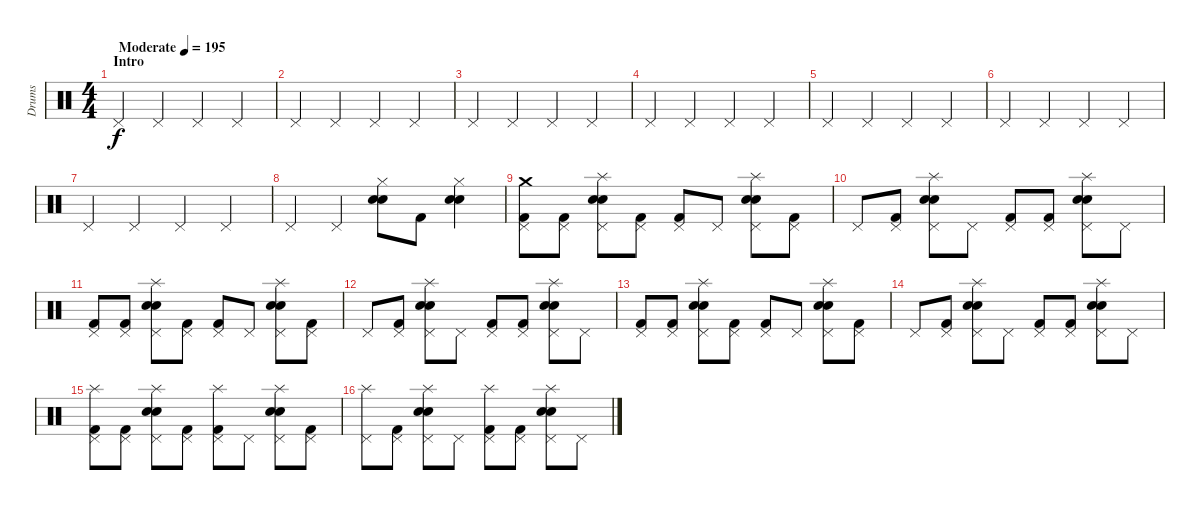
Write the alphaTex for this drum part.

\track ("Drums" "Drums") {instrument percussion}
\staff {score}
\articulation defaults
\ts (4 4)
\section ("" "Intro")
\tempo (195 "Moderate")
\clef neutral
\ks c "Pedal Hi-Hat (hit)".4{dy f} "Pedal Hi-Hat (hit)".4 "Pedal Hi-Hat (hit)".4 "Pedal Hi-Hat (hit)".4
|
"Pedal Hi-Hat (hit)".4 "Pedal Hi-Hat (hit)".4 "Pedal Hi-Hat (hit)".4 "Pedal Hi-Hat (hit)".4 |
"Pedal Hi-Hat (hit)".4 "Pedal Hi-Hat (hit)".4 "Pedal Hi-Hat (hit)".4 "Pedal Hi-Hat (hit)".4 |
"Pedal Hi-Hat (hit)".4 "Pedal Hi-Hat (hit)".4 "Pedal Hi-Hat (hit)".4 "Pedal Hi-Hat (hit)".4 |
"Pedal Hi-Hat (hit)".4 "Pedal Hi-Hat (hit)".4 "Pedal Hi-Hat (hit)".4 "Pedal Hi-Hat (hit)".4 |
"Pedal Hi-Hat (hit)".4 "Pedal Hi-Hat (hit)".4 "Pedal Hi-Hat (hit)".4 "Pedal Hi-Hat (hit)".4 |
"Pedal Hi-Hat (hit)".4 "Pedal Hi-Hat (hit)".4 "Pedal Hi-Hat (hit)".4 "Pedal Hi-Hat (hit)".4 |
"Pedal Hi-Hat (hit)".4 "Pedal Hi-Hat (hit)".4 ("Hi-Hat (closed)" "Electric Snare (hit)" "Snare (hit) 2").8 "Kick (hit) 2".8 ("Hi-Hat (closed)" "Electric Snare (hit)" "Snare (hit) 2").4 |
("Crash medium (hit)" "Pedal Hi-Hat (hit)" "Kick (hit) 2").8 ("Pedal Hi-Hat (hit)" "Kick (hit) 2").8 ("Splash (hit)" "Pedal Hi-Hat (hit)" "Electric Snare (hit)" "Snare (hit) 2").8 ("Pedal Hi-Hat (hit)" "Kick (hit) 2").8 ("Pedal Hi-Hat (hit)" "Kick (hit) 2").8 "Pedal Hi-Hat (hit)".8 ("Splash (hit)" "Pedal Hi-Hat (hit)" "Electric Snare (hit)" "Snare (hit) 2").8 ("Pedal Hi-Hat (hit)" "Kick (hit) 2").8 |
"Pedal Hi-Hat (hit)".8 ("Pedal Hi-Hat (hit)" "Kick (hit) 2").8 ("Splash (hit)" "Pedal Hi-Hat (hit)" "Electric Snare (hit)" "Snare (hit) 2").8 "Pedal Hi-Hat (hit)".8 ("Pedal Hi-Hat (hit)" "Kick (hit) 2").8 ("Pedal Hi-Hat (hit)" "Kick (hit) 2").8 ("Splash (hit)" "Pedal Hi-Hat (hit)" "Electric Snare (hit)" "Snare (hit) 2").8 "Pedal Hi-Hat (hit)".8 |
("Pedal Hi-Hat (hit)" "Kick (hit) 2").8 ("Pedal Hi-Hat (hit)" "Kick (hit) 2").8 ("Splash (hit)" "Pedal Hi-Hat (hit)" "Electric Snare (hit)" "Snare (hit) 2").8 ("Pedal Hi-Hat (hit)" "Kick (hit) 2").8 ("Pedal Hi-Hat (hit)" "Kick (hit) 2").8 "Pedal Hi-Hat (hit)".8 ("Splash (hit)" "Pedal Hi-Hat (hit)" "Electric Snare (hit)" "Snare (hit) 2").8 ("Pedal Hi-Hat (hit)" "Kick (hit) 2").8 |
"Pedal Hi-Hat (hit)".8 ("Pedal Hi-Hat (hit)" "Kick (hit) 2").8 ("Splash (hit)" "Pedal Hi-Hat (hit)" "Electric Snare (hit)" "Snare (hit) 2").8 "Pedal Hi-Hat (hit)".8 ("Pedal Hi-Hat (hit)" "Kick (hit) 2").8 ("Pedal Hi-Hat (hit)" "Kick (hit) 2").8 ("Splash (hit)" "Pedal Hi-Hat (hit)" "Electric Snare (hit)" "Snare (hit) 2").8 "Pedal Hi-Hat (hit)".8 |
("Pedal Hi-Hat (hit)" "Kick (hit) 2").8 ("Pedal Hi-Hat (hit)" "Kick (hit) 2").8 ("Splash (hit)" "Pedal Hi-Hat (hit)" "Electric Snare (hit)" "Snare (hit) 2").8 ("Pedal Hi-Hat (hit)" "Kick (hit) 2").8 ("Pedal Hi-Hat (hit)" "Kick (hit) 2").8 "Pedal Hi-Hat (hit)".8 ("Splash (hit)" "Pedal Hi-Hat (hit)" "Electric Snare (hit)" "Snare (hit) 2").8 ("Pedal Hi-Hat (hit)" "Kick (hit) 2").8 |
"Pedal Hi-Hat (hit)".8 ("Pedal Hi-Hat (hit)" "Kick (hit) 2").8 ("Splash (hit)" "Pedal Hi-Hat (hit)" "Electric Snare (hit)" "Snare (hit) 2").8 "Pedal Hi-Hat (hit)".8 ("Pedal Hi-Hat (hit)" "Kick (hit) 2").8 ("Pedal Hi-Hat (hit)" "Kick (hit) 2").8 ("Splash (hit)" "Pedal Hi-Hat (hit)" "Electric Snare (hit)" "Snare (hit) 2").8 "Pedal Hi-Hat (hit)".8 |
("Splash (hit)" "Pedal Hi-Hat (hit)" "Kick (hit) 2").8 ("Pedal Hi-Hat (hit)" "Kick (hit) 2").8 ("Splash (hit)" "Pedal Hi-Hat (hit)" "Electric Snare (hit)" "Snare (hit) 2").8 ("Pedal Hi-Hat (hit)" "Kick (hit) 2").8 ("Splash (hit)" "Pedal Hi-Hat (hit)" "Kick (hit) 2").8 "Pedal Hi-Hat (hit)".8 ("Splash (hit)" "Pedal Hi-Hat (hit)" "Electric Snare (hit)" "Snare (hit) 2").8 ("Pedal Hi-Hat (hit)" "Kick (hit) 2").8 |
("Splash (hit)" "Pedal Hi-Hat (hit)").8 ("Pedal Hi-Hat (hit)" "Kick (hit) 2").8 ("Splash (hit)" "Pedal Hi-Hat (hit)" "Electric Snare (hit)" "Snare (hit) 2").8 "Pedal Hi-Hat (hit)".8 ("Splash (hit)" "Pedal Hi-Hat (hit)" "Kick (hit) 2").8 ("Pedal Hi-Hat (hit)" "Kick (hit) 2").8 ("Splash (hit)" "Pedal Hi-Hat (hit)" "Electric Snare (hit)" "Snare (hit) 2").8 "Pedal Hi-Hat (hit)".8
